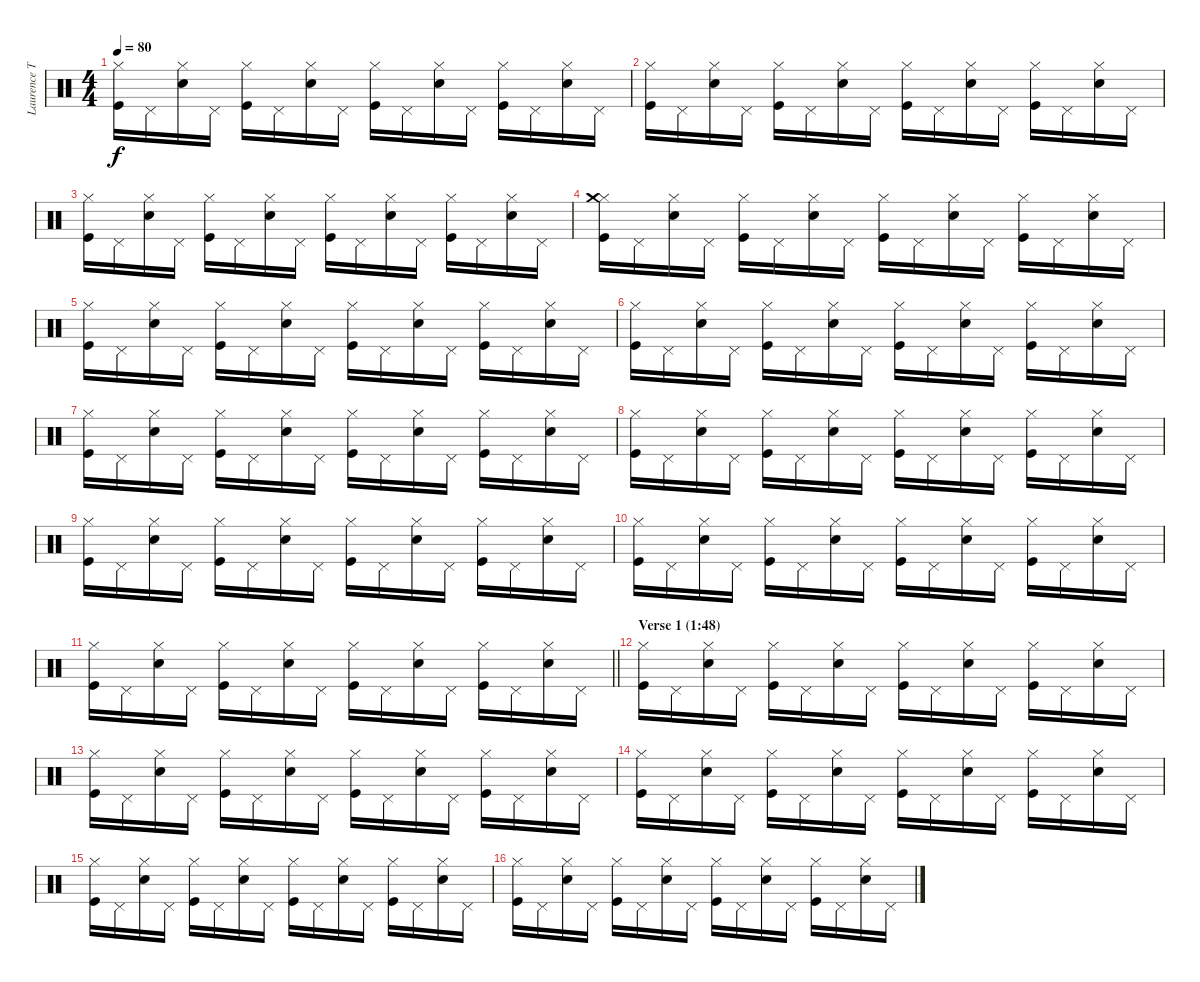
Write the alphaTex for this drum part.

\track ("Laurence Tolhurst (drums)" "Laurence T") {instrument percussion}
\staff {score}
\articulation defaults
\ts (4 4)
\tempo 80
\clef neutral
\ks c
("Kick (hit)" "Hi-Hat (closed)").16{dy f} "Pedal Hi-Hat (hit)".16 ("Snare (hit) 2" "Hi-Hat (closed)").16 "Pedal Hi-Hat (hit)".16 ("Kick (hit)" "Hi-Hat (closed)").16 "Pedal Hi-Hat (hit)".16 ("Snare (hit) 2" "Hi-Hat (closed)").16 "Pedal Hi-Hat (hit)".16 ("Kick (hit)" "Hi-Hat (closed)").16 "Pedal Hi-Hat (hit)".16 ("Snare (hit) 2" "Hi-Hat (closed)").16 "Pedal Hi-Hat (hit)".16 ("Kick (hit)" "Hi-Hat (closed)").16 "Pedal Hi-Hat (hit)".16 ("Snare (hit) 2" "Hi-Hat (closed)").16 "Pedal Hi-Hat (hit)".16 |
("Kick (hit)" "Hi-Hat (closed)").16 "Pedal Hi-Hat (hit)".16 ("Snare (hit) 2" "Hi-Hat (closed)").16 "Pedal Hi-Hat (hit)".16 ("Kick (hit)" "Hi-Hat (closed)").16 "Pedal Hi-Hat (hit)".16 ("Snare (hit) 2" "Hi-Hat (closed)").16 "Pedal Hi-Hat (hit)".16 ("Kick (hit)" "Hi-Hat (closed)").16 "Pedal Hi-Hat (hit)".16 ("Snare (hit) 2" "Hi-Hat (closed)").16 "Pedal Hi-Hat (hit)".16 ("Kick (hit)" "Hi-Hat (closed)").16 "Pedal Hi-Hat (hit)".16 ("Snare (hit) 2" "Hi-Hat (closed)").16 "Pedal Hi-Hat (hit)".16 |
("Kick (hit)" "Hi-Hat (closed)").16 "Pedal Hi-Hat (hit)".16 ("Snare (hit) 2" "Hi-Hat (closed)").16 "Pedal Hi-Hat (hit)".16 ("Kick (hit)" "Hi-Hat (closed)").16 "Pedal Hi-Hat (hit)".16 ("Snare (hit) 2" "Hi-Hat (closed)").16 "Pedal Hi-Hat (hit)".16 ("Kick (hit)" "Hi-Hat (closed)").16 "Pedal Hi-Hat (hit)".16 ("Snare (hit) 2" "Hi-Hat (closed)").16 "Pedal Hi-Hat (hit)".16 ("Kick (hit)" "Hi-Hat (closed)").16 "Pedal Hi-Hat (hit)".16 ("Snare (hit) 2" "Hi-Hat (closed)").16 "Pedal Hi-Hat (hit)".16 |
("Kick (hit)" "Hi-Hat (closed)" "Crash medium (hit)").16 "Pedal Hi-Hat (hit)".16 ("Snare (hit) 2" "Hi-Hat (closed)").16 "Pedal Hi-Hat (hit)".16 ("Kick (hit)" "Hi-Hat (closed)").16 "Pedal Hi-Hat (hit)".16 ("Snare (hit) 2" "Hi-Hat (closed)").16 "Pedal Hi-Hat (hit)".16 ("Kick (hit)" "Hi-Hat (closed)").16 "Pedal Hi-Hat (hit)".16 ("Snare (hit) 2" "Hi-Hat (closed)").16 "Pedal Hi-Hat (hit)".16 ("Kick (hit)" "Hi-Hat (closed)").16 "Pedal Hi-Hat (hit)".16 ("Snare (hit) 2" "Hi-Hat (closed)").16 "Pedal Hi-Hat (hit)".16 |
("Kick (hit)" "Hi-Hat (closed)").16 "Pedal Hi-Hat (hit)".16 ("Snare (hit) 2" "Hi-Hat (closed)").16 "Pedal Hi-Hat (hit)".16 ("Kick (hit)" "Hi-Hat (closed)").16 "Pedal Hi-Hat (hit)".16 ("Snare (hit) 2" "Hi-Hat (closed)").16 "Pedal Hi-Hat (hit)".16 ("Kick (hit)" "Hi-Hat (closed)").16 "Pedal Hi-Hat (hit)".16 ("Snare (hit) 2" "Hi-Hat (closed)").16 "Pedal Hi-Hat (hit)".16 ("Kick (hit)" "Hi-Hat (closed)").16 "Pedal Hi-Hat (hit)".16 ("Snare (hit) 2" "Hi-Hat (closed)").16 "Pedal Hi-Hat (hit)".16 |
("Kick (hit)" "Hi-Hat (closed)").16 "Pedal Hi-Hat (hit)".16 ("Snare (hit) 2" "Hi-Hat (closed)").16 "Pedal Hi-Hat (hit)".16 ("Kick (hit)" "Hi-Hat (closed)").16 "Pedal Hi-Hat (hit)".16 ("Snare (hit) 2" "Hi-Hat (closed)").16 "Pedal Hi-Hat (hit)".16 ("Kick (hit)" "Hi-Hat (closed)").16 "Pedal Hi-Hat (hit)".16 ("Snare (hit) 2" "Hi-Hat (closed)").16 "Pedal Hi-Hat (hit)".16 ("Kick (hit)" "Hi-Hat (closed)").16 "Pedal Hi-Hat (hit)".16 ("Snare (hit) 2" "Hi-Hat (closed)").16 "Pedal Hi-Hat (hit)".16 |
("Kick (hit)" "Hi-Hat (closed)").16 "Pedal Hi-Hat (hit)".16 ("Snare (hit) 2" "Hi-Hat (closed)").16 "Pedal Hi-Hat (hit)".16 ("Kick (hit)" "Hi-Hat (closed)").16 "Pedal Hi-Hat (hit)".16 ("Snare (hit) 2" "Hi-Hat (closed)").16 "Pedal Hi-Hat (hit)".16 ("Kick (hit)" "Hi-Hat (closed)").16 "Pedal Hi-Hat (hit)".16 ("Snare (hit) 2" "Hi-Hat (closed)").16 "Pedal Hi-Hat (hit)".16 ("Kick (hit)" "Hi-Hat (closed)").16 "Pedal Hi-Hat (hit)".16 ("Snare (hit) 2" "Hi-Hat (closed)").16 "Pedal Hi-Hat (hit)".16 |
("Kick (hit)" "Hi-Hat (closed)").16 "Pedal Hi-Hat (hit)".16 ("Snare (hit) 2" "Hi-Hat (closed)").16 "Pedal Hi-Hat (hit)".16 ("Kick (hit)" "Hi-Hat (closed)").16 "Pedal Hi-Hat (hit)".16 ("Snare (hit) 2" "Hi-Hat (closed)").16 "Pedal Hi-Hat (hit)".16 ("Kick (hit)" "Hi-Hat (closed)").16 "Pedal Hi-Hat (hit)".16 ("Snare (hit) 2" "Hi-Hat (closed)").16 "Pedal Hi-Hat (hit)".16 ("Kick (hit)" "Hi-Hat (closed)").16 "Pedal Hi-Hat (hit)".16 ("Snare (hit) 2" "Hi-Hat (closed)").16 "Pedal Hi-Hat (hit)".16 |
("Kick (hit)" "Hi-Hat (closed)").16 "Pedal Hi-Hat (hit)".16 ("Snare (hit) 2" "Hi-Hat (closed)").16 "Pedal Hi-Hat (hit)".16 ("Kick (hit)" "Hi-Hat (closed)").16 "Pedal Hi-Hat (hit)".16 ("Snare (hit) 2" "Hi-Hat (closed)").16 "Pedal Hi-Hat (hit)".16 ("Kick (hit)" "Hi-Hat (closed)").16 "Pedal Hi-Hat (hit)".16 ("Snare (hit) 2" "Hi-Hat (closed)").16 "Pedal Hi-Hat (hit)".16 ("Kick (hit)" "Hi-Hat (closed)").16 "Pedal Hi-Hat (hit)".16 ("Snare (hit) 2" "Hi-Hat (closed)").16 "Pedal Hi-Hat (hit)".16 |
("Kick (hit)" "Hi-Hat (closed)").16 "Pedal Hi-Hat (hit)".16 ("Snare (hit) 2" "Hi-Hat (closed)").16 "Pedal Hi-Hat (hit)".16 ("Kick (hit)" "Hi-Hat (closed)").16 "Pedal Hi-Hat (hit)".16 ("Snare (hit) 2" "Hi-Hat (closed)").16 "Pedal Hi-Hat (hit)".16 ("Kick (hit)" "Hi-Hat (closed)").16 "Pedal Hi-Hat (hit)".16 ("Snare (hit) 2" "Hi-Hat (closed)").16 "Pedal Hi-Hat (hit)".16 ("Kick (hit)" "Hi-Hat (closed)").16 "Pedal Hi-Hat (hit)".16 ("Snare (hit) 2" "Hi-Hat (closed)").16 "Pedal Hi-Hat (hit)".16 |
\barLineRight lightlight
("Kick (hit)" "Hi-Hat (closed)").16 "Pedal Hi-Hat (hit)".16 ("Snare (hit) 2" "Hi-Hat (closed)").16 "Pedal Hi-Hat (hit)".16 ("Kick (hit)" "Hi-Hat (closed)").16 "Pedal Hi-Hat (hit)".16 ("Snare (hit) 2" "Hi-Hat (closed)").16 "Pedal Hi-Hat (hit)".16 ("Kick (hit)" "Hi-Hat (closed)").16 "Pedal Hi-Hat (hit)".16 ("Snare (hit) 2" "Hi-Hat (closed)").16 "Pedal Hi-Hat (hit)".16 ("Kick (hit)" "Hi-Hat (closed)").16 "Pedal Hi-Hat (hit)".16 ("Snare (hit) 2" "Hi-Hat (closed)").16 "Pedal Hi-Hat (hit)".16 |
\section ("" "Verse 1 (1:48)")
("Kick (hit)" "Hi-Hat (closed)").16 "Pedal Hi-Hat (hit)".16 ("Snare (hit) 2" "Hi-Hat (closed)").16 "Pedal Hi-Hat (hit)".16 ("Kick (hit)" "Hi-Hat (closed)").16 "Pedal Hi-Hat (hit)".16 ("Snare (hit) 2" "Hi-Hat (closed)").16 "Pedal Hi-Hat (hit)".16 ("Kick (hit)" "Hi-Hat (closed)").16 "Pedal Hi-Hat (hit)".16 ("Snare (hit) 2" "Hi-Hat (closed)").16 "Pedal Hi-Hat (hit)".16 ("Kick (hit)" "Hi-Hat (closed)").16 "Pedal Hi-Hat (hit)".16 ("Snare (hit) 2" "Hi-Hat (closed)").16 "Pedal Hi-Hat (hit)".16 |
("Kick (hit)" "Hi-Hat (closed)").16 "Pedal Hi-Hat (hit)".16 ("Snare (hit) 2" "Hi-Hat (closed)").16 "Pedal Hi-Hat (hit)".16 ("Kick (hit)" "Hi-Hat (closed)").16 "Pedal Hi-Hat (hit)".16 ("Snare (hit) 2" "Hi-Hat (closed)").16 "Pedal Hi-Hat (hit)".16 ("Kick (hit)" "Hi-Hat (closed)").16 "Pedal Hi-Hat (hit)".16 ("Snare (hit) 2" "Hi-Hat (closed)").16 "Pedal Hi-Hat (hit)".16 ("Kick (hit)" "Hi-Hat (closed)").16 "Pedal Hi-Hat (hit)".16 ("Snare (hit) 2" "Hi-Hat (closed)").16 "Pedal Hi-Hat (hit)".16 |
("Kick (hit)" "Hi-Hat (closed)").16 "Pedal Hi-Hat (hit)".16 ("Snare (hit) 2" "Hi-Hat (closed)").16 "Pedal Hi-Hat (hit)".16 ("Kick (hit)" "Hi-Hat (closed)").16 "Pedal Hi-Hat (hit)".16 ("Snare (hit) 2" "Hi-Hat (closed)").16 "Pedal Hi-Hat (hit)".16 ("Kick (hit)" "Hi-Hat (closed)").16 "Pedal Hi-Hat (hit)".16 ("Snare (hit) 2" "Hi-Hat (closed)").16 "Pedal Hi-Hat (hit)".16 ("Kick (hit)" "Hi-Hat (closed)").16 "Pedal Hi-Hat (hit)".16 ("Snare (hit) 2" "Hi-Hat (closed)").16 "Pedal Hi-Hat (hit)".16 |
("Kick (hit)" "Hi-Hat (closed)").16 "Pedal Hi-Hat (hit)".16 ("Snare (hit) 2" "Hi-Hat (closed)").16 "Pedal Hi-Hat (hit)".16 ("Kick (hit)" "Hi-Hat (closed)").16 "Pedal Hi-Hat (hit)".16 ("Snare (hit) 2" "Hi-Hat (closed)").16 "Pedal Hi-Hat (hit)".16 ("Kick (hit)" "Hi-Hat (closed)").16 "Pedal Hi-Hat (hit)".16 ("Snare (hit) 2" "Hi-Hat (closed)").16 "Pedal Hi-Hat (hit)".16 ("Kick (hit)" "Hi-Hat (closed)").16 "Pedal Hi-Hat (hit)".16 ("Snare (hit) 2" "Hi-Hat (closed)").16 "Pedal Hi-Hat (hit)".16 |
("Kick (hit)" "Hi-Hat (closed)").16 "Pedal Hi-Hat (hit)".16 ("Snare (hit) 2" "Hi-Hat (closed)").16 "Pedal Hi-Hat (hit)".16 ("Kick (hit)" "Hi-Hat (closed)").16 "Pedal Hi-Hat (hit)".16 ("Snare (hit) 2" "Hi-Hat (closed)").16 "Pedal Hi-Hat (hit)".16 ("Kick (hit)" "Hi-Hat (closed)").16 "Pedal Hi-Hat (hit)".16 ("Snare (hit) 2" "Hi-Hat (closed)").16 "Pedal Hi-Hat (hit)".16 ("Kick (hit)" "Hi-Hat (closed)").16 "Pedal Hi-Hat (hit)".16 ("Snare (hit) 2" "Hi-Hat (closed)").16 "Pedal Hi-Hat (hit)".16
